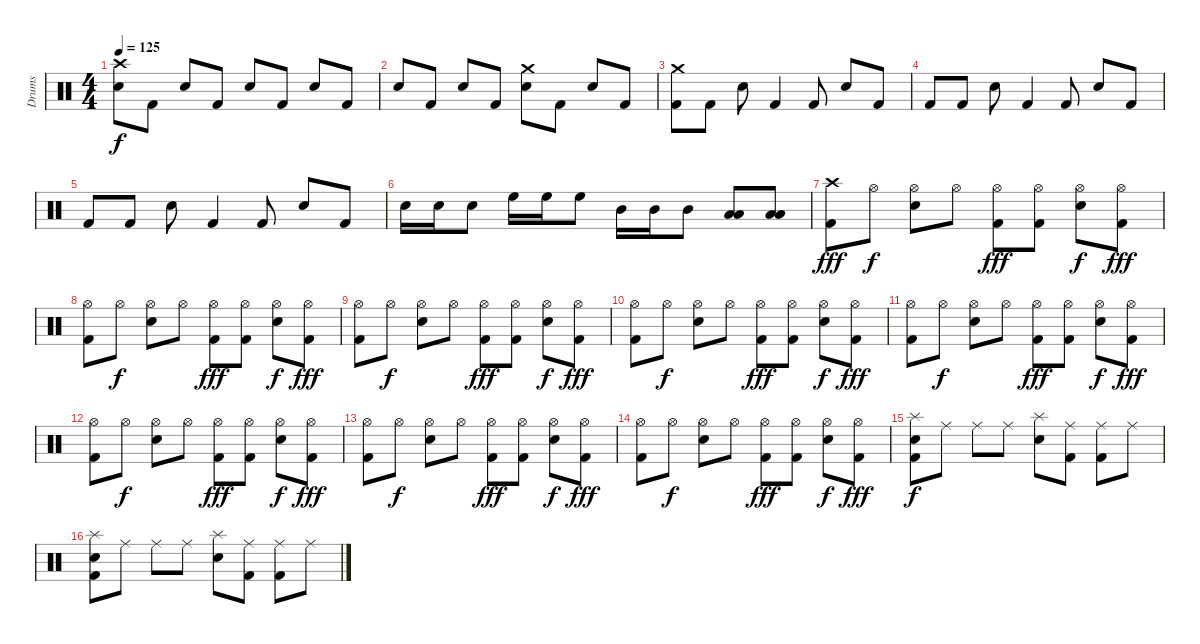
\track ("Drums" "Drums") {instrument percussion}
\staff {score}
\articulation defaults
\ts (4 4)
\tempo 125
\clef neutral
\ks c
("Crash high (hit)" "Snare (hit) 2").8{dy f} "Kick (hit) 2".8 "Snare (hit) 2".8 "Kick (hit) 2".8 "Snare (hit) 2".8 "Kick (hit) 2".8 "Snare (hit) 2".8 "Kick (hit) 2".8 |
"Snare (hit) 2".8 "Kick (hit) 2".8 "Snare (hit) 2".8 "Kick (hit) 2".8 ("Crash medium (hit)" "Snare (hit) 2").8 "Kick (hit) 2".8 "Snare (hit) 2".8 "Kick (hit) 2".8 |
("Crash medium (hit)" "Kick (hit) 2").8 "Kick (hit) 2".8 "Snare (hit) 2".8 "Kick (hit) 2".4 "Kick (hit) 2".8 "Snare (hit) 2".8 "Kick (hit) 2".8 |
"Kick (hit) 2".8 "Kick (hit) 2".8 "Snare (hit) 2".8 "Kick (hit) 2".4 "Kick (hit) 2".8 "Snare (hit) 2".8 "Kick (hit) 2".8 |
"Kick (hit) 2".8 "Kick (hit) 2".8 "Snare (hit) 2".8 "Kick (hit) 2".4 "Kick (hit) 2".8 "Snare (hit) 2".8 "Kick (hit) 2".8 |
"Snare (hit) 2".16 "Snare (hit) 2".16 "Snare (hit) 2".8 "High Floor Tom (hit)".16 "High Floor Tom (hit)".16 "High Floor Tom (hit)".8 "Mid Tom (hit)".16 "Mid Tom (hit)".16 "Mid Tom (hit)".8 ("Low Tom (hit)" "Low Tom (hit)").8 ("Low Floor Tom (hit)" "Low Floor Tom (hit)").8 |
("Crash high (hit)" "Kick (hit) 2").8{dy fff} "Hi-Hat (open)".8{dy f} ("Hi-Hat (open)" "Snare (hit) 2").8 "Hi-Hat (open)".8 ("Hi-Hat (open)" "Kick (hit) 2").8{dy fff} ("Hi-Hat (open)" "Kick (hit) 2").8 ("Hi-Hat (open)" "Snare (hit) 2").8{dy f} ("Hi-Hat (open)" "Kick (hit) 2").8{dy fff} |
("Hi-Hat (open)" "Kick (hit) 2").8 "Hi-Hat (open)".8{dy f} ("Hi-Hat (open)" "Snare (hit) 2").8 "Hi-Hat (open)".8 ("Hi-Hat (open)" "Kick (hit) 2").8{dy fff} ("Hi-Hat (open)" "Kick (hit) 2").8 ("Hi-Hat (open)" "Snare (hit) 2").8{dy f} ("Hi-Hat (open)" "Kick (hit) 2").8{dy fff} |
("Hi-Hat (open)" "Kick (hit) 2").8 "Hi-Hat (open)".8{dy f} ("Hi-Hat (open)" "Snare (hit) 2").8 "Hi-Hat (open)".8 ("Hi-Hat (open)" "Kick (hit) 2").8{dy fff} ("Hi-Hat (open)" "Kick (hit) 2").8 ("Hi-Hat (open)" "Snare (hit) 2").8{dy f} ("Hi-Hat (open)" "Kick (hit) 2").8{dy fff} |
("Hi-Hat (open)" "Kick (hit) 2").8 "Hi-Hat (open)".8{dy f} ("Hi-Hat (open)" "Snare (hit) 2").8 "Hi-Hat (open)".8 ("Hi-Hat (open)" "Kick (hit) 2").8{dy fff} ("Hi-Hat (open)" "Kick (hit) 2").8 ("Hi-Hat (open)" "Snare (hit) 2").8{dy f} ("Hi-Hat (open)" "Kick (hit) 2").8{dy fff} |
("Hi-Hat (open)" "Kick (hit) 2").8 "Hi-Hat (open)".8{dy f} ("Hi-Hat (open)" "Snare (hit) 2").8 "Hi-Hat (open)".8 ("Hi-Hat (open)" "Kick (hit) 2").8{dy fff} ("Hi-Hat (open)" "Kick (hit) 2").8 ("Hi-Hat (open)" "Snare (hit) 2").8{dy f} ("Hi-Hat (open)" "Kick (hit) 2").8{dy fff} |
("Hi-Hat (open)" "Kick (hit) 2").8 "Hi-Hat (open)".8{dy f} ("Hi-Hat (open)" "Snare (hit) 2").8 "Hi-Hat (open)".8 ("Hi-Hat (open)" "Kick (hit) 2").8{dy fff} ("Hi-Hat (open)" "Kick (hit) 2").8 ("Hi-Hat (open)" "Snare (hit) 2").8{dy f} ("Hi-Hat (open)" "Kick (hit) 2").8{dy fff} |
("Hi-Hat (open)" "Kick (hit) 2").8 "Hi-Hat (open)".8{dy f} ("Hi-Hat (open)" "Snare (hit) 2").8 "Hi-Hat (open)".8 ("Hi-Hat (open)" "Kick (hit) 2").8{dy fff} ("Hi-Hat (open)" "Kick (hit) 2").8 ("Hi-Hat (open)" "Snare (hit) 2").8{dy f} ("Hi-Hat (open)" "Kick (hit) 2").8{dy fff} |
("Hi-Hat (open)" "Kick (hit) 2").8 "Hi-Hat (open)".8{dy f} ("Hi-Hat (open)" "Snare (hit) 2").8 "Hi-Hat (open)".8 ("Hi-Hat (open)" "Kick (hit) 2").8{dy fff} ("Hi-Hat (open)" "Kick (hit) 2").8 ("Hi-Hat (open)" "Snare (hit) 2").8{dy f} ("Hi-Hat (open)" "Kick (hit) 2").8{dy fff} |
("Splash (hit)" "Snare (hit) 2" "Kick (hit) 2").8{dy f} "Ride (middle)".8 "Ride (middle)".8 "Ride (middle)".8 ("Splash (hit)" "Snare (hit) 2").8 ("Ride (middle)" "Kick (hit) 2").8 ("Ride (middle)" "Kick (hit) 2").8 "Ride (middle)".8 |
("Splash (hit)" "Snare (hit) 2" "Kick (hit) 2").8 "Ride (middle)".8 "Ride (middle)".8 "Ride (middle)".8 ("Splash (hit)" "Snare (hit) 2").8 ("Ride (middle)" "Kick (hit) 2").8 ("Ride (middle)" "Kick (hit) 2").8 "Ride (middle)".8
